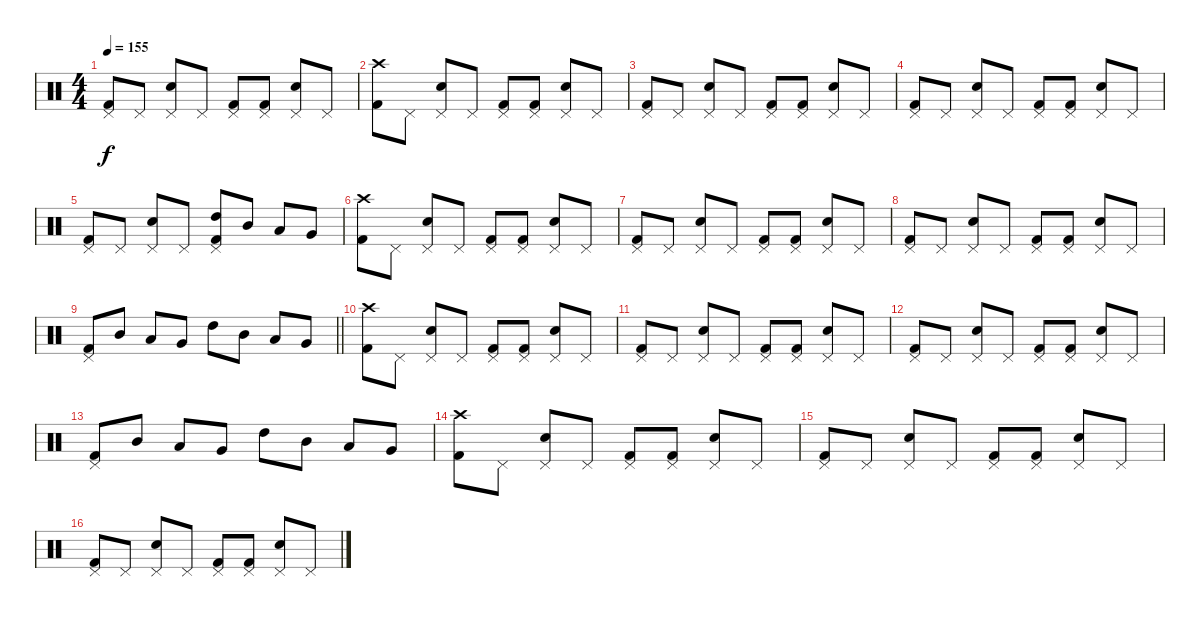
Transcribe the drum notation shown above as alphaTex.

\track "" {instrument percussion}
\staff {score}
\articulation defaults
\ts (4 4)
\tempo 155
\clef neutral
\ks c
("Pedal Hi-Hat (hit)" "Kick (hit) 2").8{txt "" dy f} "Pedal Hi-Hat (hit)".8 ("Pedal Hi-Hat (hit)" "Electric Snare (hit)").8 "Pedal Hi-Hat (hit)".8 ("Pedal Hi-Hat (hit)" "Kick (hit) 2").8 ("Pedal Hi-Hat (hit)" "Kick (hit) 2").8 ("Pedal Hi-Hat (hit)" "Electric Snare (hit)").8 "Pedal Hi-Hat (hit)".8 |
("Crash high (hit)" "Kick (hit) 2").8 "Pedal Hi-Hat (hit)".8 ("Pedal Hi-Hat (hit)" "Electric Snare (hit)").8 "Pedal Hi-Hat (hit)".8 ("Pedal Hi-Hat (hit)" "Kick (hit) 2").8 ("Pedal Hi-Hat (hit)" "Kick (hit) 2").8 ("Pedal Hi-Hat (hit)" "Electric Snare (hit)").8 "Pedal Hi-Hat (hit)".8 |
("Pedal Hi-Hat (hit)" "Kick (hit) 2").8 "Pedal Hi-Hat (hit)".8 ("Pedal Hi-Hat (hit)" "Electric Snare (hit)").8 "Pedal Hi-Hat (hit)".8 ("Pedal Hi-Hat (hit)" "Kick (hit) 2").8 ("Pedal Hi-Hat (hit)" "Kick (hit) 2").8 ("Pedal Hi-Hat (hit)" "Electric Snare (hit)").8 "Pedal Hi-Hat (hit)".8 |
("Pedal Hi-Hat (hit)" "Kick (hit) 2").8 "Pedal Hi-Hat (hit)".8 ("Pedal Hi-Hat (hit)" "Electric Snare (hit)").8 "Pedal Hi-Hat (hit)".8 ("Pedal Hi-Hat (hit)" "Kick (hit) 2").8 ("Pedal Hi-Hat (hit)" "Kick (hit) 2").8 ("Pedal Hi-Hat (hit)" "Electric Snare (hit)").8 "Pedal Hi-Hat (hit)".8 |
("Pedal Hi-Hat (hit)" "Kick (hit) 2").8 "Pedal Hi-Hat (hit)".8 ("Pedal Hi-Hat (hit)" "Electric Snare (hit)").8 "Pedal Hi-Hat (hit)".8 ("Pedal Hi-Hat (hit)" "High Tom (hit)" "Kick (hit) 2").8 "Mid Tom (hit)".8 "Low Tom (hit)".8 "Very Low Tom (hit)".8 |
("Crash high (hit)" "Kick (hit) 2").8 "Pedal Hi-Hat (hit)".8 ("Pedal Hi-Hat (hit)" "Electric Snare (hit)").8 "Pedal Hi-Hat (hit)".8 ("Pedal Hi-Hat (hit)" "Kick (hit) 2").8 ("Pedal Hi-Hat (hit)" "Kick (hit) 2").8 ("Pedal Hi-Hat (hit)" "Electric Snare (hit)").8 "Pedal Hi-Hat (hit)".8 |
("Pedal Hi-Hat (hit)" "Kick (hit) 2").8 "Pedal Hi-Hat (hit)".8 ("Pedal Hi-Hat (hit)" "Electric Snare (hit)").8 "Pedal Hi-Hat (hit)".8 ("Pedal Hi-Hat (hit)" "Kick (hit) 2").8 ("Pedal Hi-Hat (hit)" "Kick (hit) 2").8 ("Pedal Hi-Hat (hit)" "Electric Snare (hit)").8 "Pedal Hi-Hat (hit)".8 |
("Pedal Hi-Hat (hit)" "Kick (hit) 2").8 "Pedal Hi-Hat (hit)".8 ("Pedal Hi-Hat (hit)" "Electric Snare (hit)").8 "Pedal Hi-Hat (hit)".8 ("Pedal Hi-Hat (hit)" "Kick (hit) 2").8 ("Pedal Hi-Hat (hit)" "Kick (hit) 2").8 ("Pedal Hi-Hat (hit)" "Electric Snare (hit)").8 "Pedal Hi-Hat (hit)".8 |
\barLineRight lightlight
("Pedal Hi-Hat (hit)" "Kick (hit) 2").8 "Mid Tom (hit)".8 "Low Tom (hit)".8 "Very Low Tom (hit)".8 "High Tom (hit)".8 "Mid Tom (hit)".8 "Low Tom (hit)".8 "Very Low Tom (hit)".8 |
\section ("" "")
("Crash high (hit)" "Kick (hit) 2").8 "Pedal Hi-Hat (hit)".8 ("Pedal Hi-Hat (hit)" "Electric Snare (hit)").8 "Pedal Hi-Hat (hit)".8 ("Pedal Hi-Hat (hit)" "Kick (hit) 2").8 ("Pedal Hi-Hat (hit)" "Kick (hit) 2").8 ("Pedal Hi-Hat (hit)" "Electric Snare (hit)").8 "Pedal Hi-Hat (hit)".8 |
("Pedal Hi-Hat (hit)" "Kick (hit) 2").8 "Pedal Hi-Hat (hit)".8 ("Pedal Hi-Hat (hit)" "Electric Snare (hit)").8 "Pedal Hi-Hat (hit)".8 ("Pedal Hi-Hat (hit)" "Kick (hit) 2").8 ("Pedal Hi-Hat (hit)" "Kick (hit) 2").8 ("Pedal Hi-Hat (hit)" "Electric Snare (hit)").8 "Pedal Hi-Hat (hit)".8 |
("Pedal Hi-Hat (hit)" "Kick (hit) 2").8 "Pedal Hi-Hat (hit)".8 ("Pedal Hi-Hat (hit)" "Electric Snare (hit)").8 "Pedal Hi-Hat (hit)".8 ("Pedal Hi-Hat (hit)" "Kick (hit) 2").8 ("Pedal Hi-Hat (hit)" "Kick (hit) 2").8 ("Pedal Hi-Hat (hit)" "Electric Snare (hit)").8 "Pedal Hi-Hat (hit)".8 |
("Pedal Hi-Hat (hit)" "Kick (hit) 2").8 "Mid Tom (hit)".8 "Low Tom (hit)".8 "Very Low Tom (hit)".8 "High Tom (hit)".8 "Mid Tom (hit)".8 "Low Tom (hit)".8 "Very Low Tom (hit)".8 |
("Crash high (hit)" "Kick (hit) 2").8 "Pedal Hi-Hat (hit)".8 ("Pedal Hi-Hat (hit)" "Electric Snare (hit)").8 "Pedal Hi-Hat (hit)".8 ("Pedal Hi-Hat (hit)" "Kick (hit) 2").8 ("Pedal Hi-Hat (hit)" "Kick (hit) 2").8 ("Pedal Hi-Hat (hit)" "Electric Snare (hit)").8 "Pedal Hi-Hat (hit)".8 |
("Pedal Hi-Hat (hit)" "Kick (hit) 2").8 "Pedal Hi-Hat (hit)".8 ("Pedal Hi-Hat (hit)" "Electric Snare (hit)").8 "Pedal Hi-Hat (hit)".8 ("Pedal Hi-Hat (hit)" "Kick (hit) 2").8 ("Pedal Hi-Hat (hit)" "Kick (hit) 2").8 ("Pedal Hi-Hat (hit)" "Electric Snare (hit)").8 "Pedal Hi-Hat (hit)".8 |
("Pedal Hi-Hat (hit)" "Kick (hit) 2").8 "Pedal Hi-Hat (hit)".8 ("Pedal Hi-Hat (hit)" "Electric Snare (hit)").8 "Pedal Hi-Hat (hit)".8 ("Pedal Hi-Hat (hit)" "Kick (hit) 2").8 ("Pedal Hi-Hat (hit)" "Kick (hit) 2").8 ("Pedal Hi-Hat (hit)" "Electric Snare (hit)").8 "Pedal Hi-Hat (hit)".8
